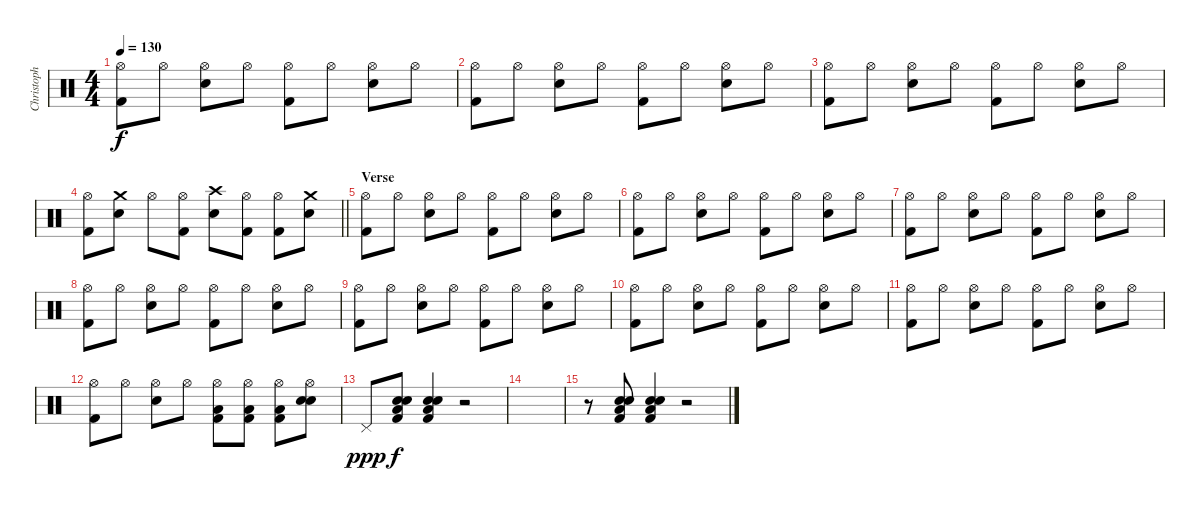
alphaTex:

\track ("Christoph \"Doom\" Schneider" "Christoph ") {instrument percussion}
\staff {score}
\articulation defaults
\ts (4 4)
\tempo 130
\clef neutral
\ks c
("Hi-Hat (open)" "Kick (hit) 2").8{dy f} "Hi-Hat (open)".8 ("Hi-Hat (open)" "Electric Snare (hit)").8 "Hi-Hat (open)".8 ("Hi-Hat (open)" "Kick (hit) 2").8 "Hi-Hat (open)".8 ("Hi-Hat (open)" "Electric Snare (hit)").8 "Hi-Hat (open)".8 |
("Hi-Hat (open)" "Kick (hit) 2").8 "Hi-Hat (open)".8 ("Hi-Hat (open)" "Electric Snare (hit)").8 "Hi-Hat (open)".8 ("Hi-Hat (open)" "Kick (hit) 2").8 "Hi-Hat (open)".8 ("Hi-Hat (open)" "Electric Snare (hit)").8 "Hi-Hat (open)".8 |
("Hi-Hat (open)" "Kick (hit) 2").8 "Hi-Hat (open)".8 ("Hi-Hat (open)" "Electric Snare (hit)").8 "Hi-Hat (open)".8 ("Hi-Hat (open)" "Kick (hit) 2").8 "Hi-Hat (open)".8 ("Hi-Hat (open)" "Electric Snare (hit)").8 "Hi-Hat (open)".8 |
\barLineRight lightlight
("Hi-Hat (open)" "Kick (hit) 2").8 ("Crash medium (hit)" "Electric Snare (hit)").8 "Hi-Hat (open)".8 ("Hi-Hat (open)" "Kick (hit) 2").8 ("Crash high (hit)" "Electric Snare (hit)").8 ("Hi-Hat (open)" "Kick (hit) 2").8 ("Hi-Hat (open)" "Kick (hit) 2").8 ("Crash medium (hit)" "Electric Snare (hit)").8 |
\section ("" "Verse")
("Hi-Hat (open)" "Kick (hit) 2").8 "Hi-Hat (open)".8 ("Hi-Hat (open)" "Electric Snare (hit)").8 "Hi-Hat (open)".8 ("Hi-Hat (open)" "Kick (hit) 2").8 "Hi-Hat (open)".8 ("Hi-Hat (open)" "Electric Snare (hit)").8 "Hi-Hat (open)".8 |
("Hi-Hat (open)" "Kick (hit) 2").8 "Hi-Hat (open)".8 ("Hi-Hat (open)" "Electric Snare (hit)").8 "Hi-Hat (open)".8 ("Hi-Hat (open)" "Kick (hit) 2").8 "Hi-Hat (open)".8 ("Hi-Hat (open)" "Electric Snare (hit)").8 "Hi-Hat (open)".8 |
("Hi-Hat (open)" "Kick (hit) 2").8 "Hi-Hat (open)".8 ("Hi-Hat (open)" "Electric Snare (hit)").8 "Hi-Hat (open)".8 ("Hi-Hat (open)" "Kick (hit) 2").8 "Hi-Hat (open)".8 ("Hi-Hat (open)" "Electric Snare (hit)").8 "Hi-Hat (open)".8 |
("Hi-Hat (open)" "Kick (hit) 2").8 "Hi-Hat (open)".8 ("Hi-Hat (open)" "Electric Snare (hit)").8 "Hi-Hat (open)".8 ("Hi-Hat (open)" "Kick (hit) 2").8 "Hi-Hat (open)".8 ("Hi-Hat (open)" "Electric Snare (hit)").8 "Hi-Hat (open)".8 |
("Hi-Hat (open)" "Kick (hit) 2").8 "Hi-Hat (open)".8 ("Hi-Hat (open)" "Electric Snare (hit)").8 "Hi-Hat (open)".8 ("Hi-Hat (open)" "Kick (hit) 2").8 "Hi-Hat (open)".8 ("Hi-Hat (open)" "Electric Snare (hit)").8 "Hi-Hat (open)".8 |
("Hi-Hat (open)" "Kick (hit) 2").8 "Hi-Hat (open)".8 ("Hi-Hat (open)" "Electric Snare (hit)").8 "Hi-Hat (open)".8 ("Hi-Hat (open)" "Kick (hit) 2").8 "Hi-Hat (open)".8 ("Hi-Hat (open)" "Electric Snare (hit)").8 "Hi-Hat (open)".8 |
("Hi-Hat (open)" "Kick (hit) 2").8 "Hi-Hat (open)".8 ("Hi-Hat (open)" "Electric Snare (hit)").8 "Hi-Hat (open)".8 ("Hi-Hat (open)" "Kick (hit) 2").8 "Hi-Hat (open)".8 ("Hi-Hat (open)" "Electric Snare (hit)").8 "Hi-Hat (open)".8 |
("Hi-Hat (open)" "Kick (hit) 2").8 "Hi-Hat (open)".8 ("Hi-Hat (open)" "Electric Snare (hit)").8 "Hi-Hat (open)".8 ("Hi-Hat (open)" "Low Floor Tom (hit)" "Kick (hit) 2").8 ("Hi-Hat (open)" "Low Floor Tom (hit)" "Kick (hit) 2").8 ("Hi-Hat (open)" "Low Floor Tom (hit)" "Kick (hit) 2").8 ("Hi-Hat (open)" "Electric Snare (hit)" "Electric Snare (hit)").8 |
"Pedal Hi-Hat (hit)".8{dy ppp} ("Electric Snare (hit)" "Kick (hit) 2" "Low Floor Tom (hit)" "Electric Snare (hit)").8{dy f} ("Electric Snare (hit)" "Kick (hit) 2" "Low Floor Tom (hit)" "Electric Snare (hit)").4 r.2 |
|
r.8 ("Electric Snare (hit)" "Kick (hit) 2" "Low Floor Tom (hit)" "Electric Snare (hit)").8 ("Electric Snare (hit)" "Kick (hit) 2" "Low Floor Tom (hit)" "Electric Snare (hit)").4 r.2
